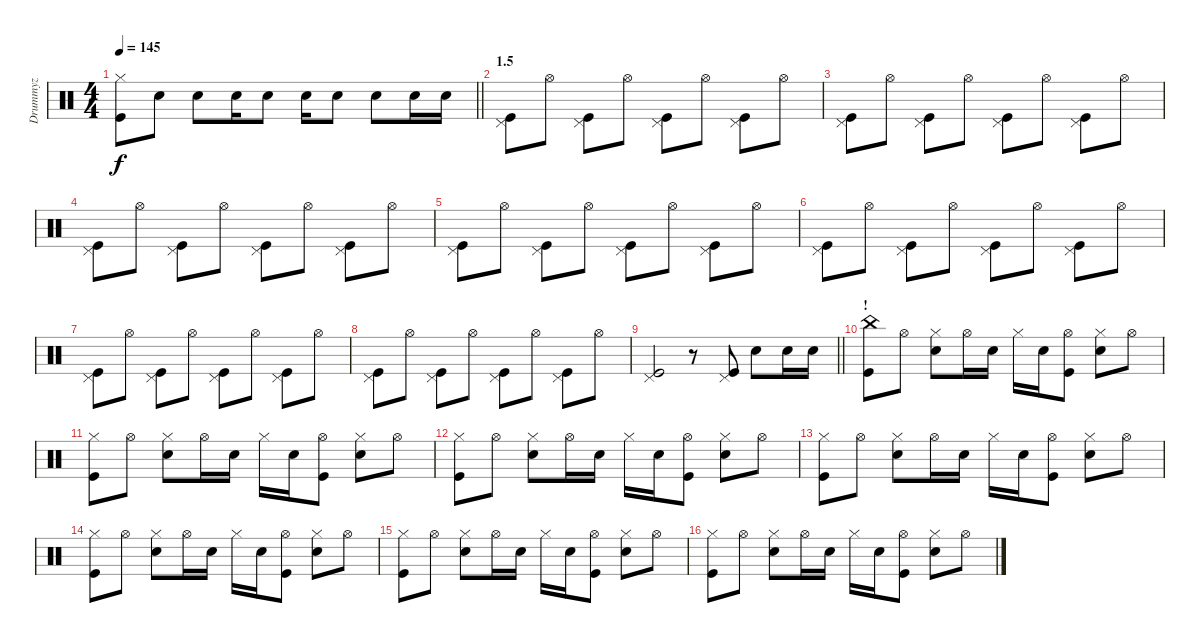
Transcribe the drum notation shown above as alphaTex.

\track ("Drummyz" "Drummyz") {instrument percussion}
\staff {score}
\articulation defaults
\ts (4 4)
\tempo 145
\clef neutral
\barLineRight lightlight
\ks c
("Kick (hit)" "Hi-Hat (closed)").8{dy f} "Snare (hit) 2".8 "Snare (hit) 2".8 "Snare (hit) 2".16 "Snare (hit) 2".8 "Snare (hit) 2".16 "Snare (hit) 2".8 "Snare (hit) 2".8 "Snare (hit) 2".16 "Snare (hit) 2".16 |
\section ("" "1.5")
("Kick (hit)" "Pedal Hi-Hat (hit)").8 "Hi-Hat (open)".8 ("Kick (hit)" "Pedal Hi-Hat (hit)").8 "Hi-Hat (open)".8 ("Kick (hit)" "Pedal Hi-Hat (hit)").8 "Hi-Hat (open)".8 ("Kick (hit)" "Pedal Hi-Hat (hit)").8 "Hi-Hat (open)".8 |
("Kick (hit)" "Pedal Hi-Hat (hit)").8 "Hi-Hat (open)".8 ("Kick (hit)" "Pedal Hi-Hat (hit)").8 "Hi-Hat (open)".8 ("Kick (hit)" "Pedal Hi-Hat (hit)").8 "Hi-Hat (open)".8 ("Kick (hit)" "Pedal Hi-Hat (hit)").8 "Hi-Hat (open)".8 |
("Kick (hit)" "Pedal Hi-Hat (hit)").8 "Hi-Hat (open)".8 ("Kick (hit)" "Pedal Hi-Hat (hit)").8 "Hi-Hat (open)".8 ("Kick (hit)" "Pedal Hi-Hat (hit)").8 "Hi-Hat (open)".8 ("Kick (hit)" "Pedal Hi-Hat (hit)").8 "Hi-Hat (open)".8 |
("Kick (hit)" "Pedal Hi-Hat (hit)").8 "Hi-Hat (open)".8 ("Kick (hit)" "Pedal Hi-Hat (hit)").8 "Hi-Hat (open)".8 ("Kick (hit)" "Pedal Hi-Hat (hit)").8 "Hi-Hat (open)".8 ("Kick (hit)" "Pedal Hi-Hat (hit)").8 "Hi-Hat (open)".8 |
("Kick (hit)" "Pedal Hi-Hat (hit)").8 "Hi-Hat (open)".8 ("Kick (hit)" "Pedal Hi-Hat (hit)").8 "Hi-Hat (open)".8 ("Kick (hit)" "Pedal Hi-Hat (hit)").8 "Hi-Hat (open)".8 ("Kick (hit)" "Pedal Hi-Hat (hit)").8 "Hi-Hat (open)".8 |
("Kick (hit)" "Pedal Hi-Hat (hit)").8 "Hi-Hat (open)".8 ("Kick (hit)" "Pedal Hi-Hat (hit)").8 "Hi-Hat (open)".8 ("Kick (hit)" "Pedal Hi-Hat (hit)").8 "Hi-Hat (open)".8 ("Kick (hit)" "Pedal Hi-Hat (hit)").8 "Hi-Hat (open)".8 |
("Kick (hit)" "Pedal Hi-Hat (hit)").8 "Hi-Hat (open)".8 ("Kick (hit)" "Pedal Hi-Hat (hit)").8 "Hi-Hat (open)".8 ("Kick (hit)" "Pedal Hi-Hat (hit)").8 "Hi-Hat (open)".8 ("Kick (hit)" "Pedal Hi-Hat (hit)").8 "Hi-Hat (open)".8 |
\barLineRight lightlight
("Kick (hit)" "Pedal Hi-Hat (hit)").2 r.8 ("Kick (hit)" "Pedal Hi-Hat (hit)").8 "Snare (hit) 2".8 "Snare (hit) 2".16 "Snare (hit) 2".16 |
\section ("" "!")
("Kick (hit)" "China (hit)").8 "Hi-Hat (open)".8 ("Hi-Hat (closed)" "Snare (hit) 2").8 "Hi-Hat (open)".16 "Snare (hit) 2".16 "Hi-Hat (closed)".16 "Snare (hit) 2".16 ("Kick (hit)" "Hi-Hat (open)").8 ("Snare (hit) 2" "Hi-Hat (closed)").8 "Hi-Hat (open)".8 |
("Kick (hit)" "Hi-Hat (closed)").8 "Hi-Hat (open)".8 ("Hi-Hat (closed)" "Snare (hit) 2").8 "Hi-Hat (open)".16 "Snare (hit) 2".16 "Hi-Hat (closed)".16 "Snare (hit) 2".16 ("Kick (hit)" "Hi-Hat (open)").8 ("Snare (hit) 2" "Hi-Hat (closed)").8 "Hi-Hat (open)".8 |
("Kick (hit)" "Hi-Hat (closed)").8 "Hi-Hat (open)".8 ("Hi-Hat (closed)" "Snare (hit) 2").8 "Hi-Hat (open)".16 "Snare (hit) 2".16 "Hi-Hat (closed)".16 "Snare (hit) 2".16 ("Kick (hit)" "Hi-Hat (open)").8 ("Snare (hit) 2" "Hi-Hat (closed)").8 "Hi-Hat (open)".8 |
("Kick (hit)" "Hi-Hat (closed)").8 "Hi-Hat (open)".8 ("Hi-Hat (closed)" "Snare (hit) 2").8 "Hi-Hat (open)".16 "Snare (hit) 2".16 "Hi-Hat (closed)".16 "Snare (hit) 2".16 ("Kick (hit)" "Hi-Hat (open)").8 ("Snare (hit) 2" "Hi-Hat (closed)").8 "Hi-Hat (open)".8 |
("Kick (hit)" "Hi-Hat (closed)").8 "Hi-Hat (open)".8 ("Hi-Hat (closed)" "Snare (hit) 2").8 "Hi-Hat (open)".16 "Snare (hit) 2".16 "Hi-Hat (closed)".16 "Snare (hit) 2".16 ("Kick (hit)" "Hi-Hat (open)").8 ("Snare (hit) 2" "Hi-Hat (closed)").8 "Hi-Hat (open)".8 |
("Kick (hit)" "Hi-Hat (closed)").8 "Hi-Hat (open)".8 ("Hi-Hat (closed)" "Snare (hit) 2").8 "Hi-Hat (open)".16 "Snare (hit) 2".16 "Hi-Hat (closed)".16 "Snare (hit) 2".16 ("Kick (hit)" "Hi-Hat (open)").8 ("Snare (hit) 2" "Hi-Hat (closed)").8 "Hi-Hat (open)".8 |
("Kick (hit)" "Hi-Hat (closed)").8 "Hi-Hat (open)".8 ("Hi-Hat (closed)" "Snare (hit) 2").8 "Hi-Hat (open)".16 "Snare (hit) 2".16 "Hi-Hat (closed)".16 "Snare (hit) 2".16 ("Kick (hit)" "Hi-Hat (open)").8 ("Snare (hit) 2" "Hi-Hat (closed)").8 "Hi-Hat (open)".8
